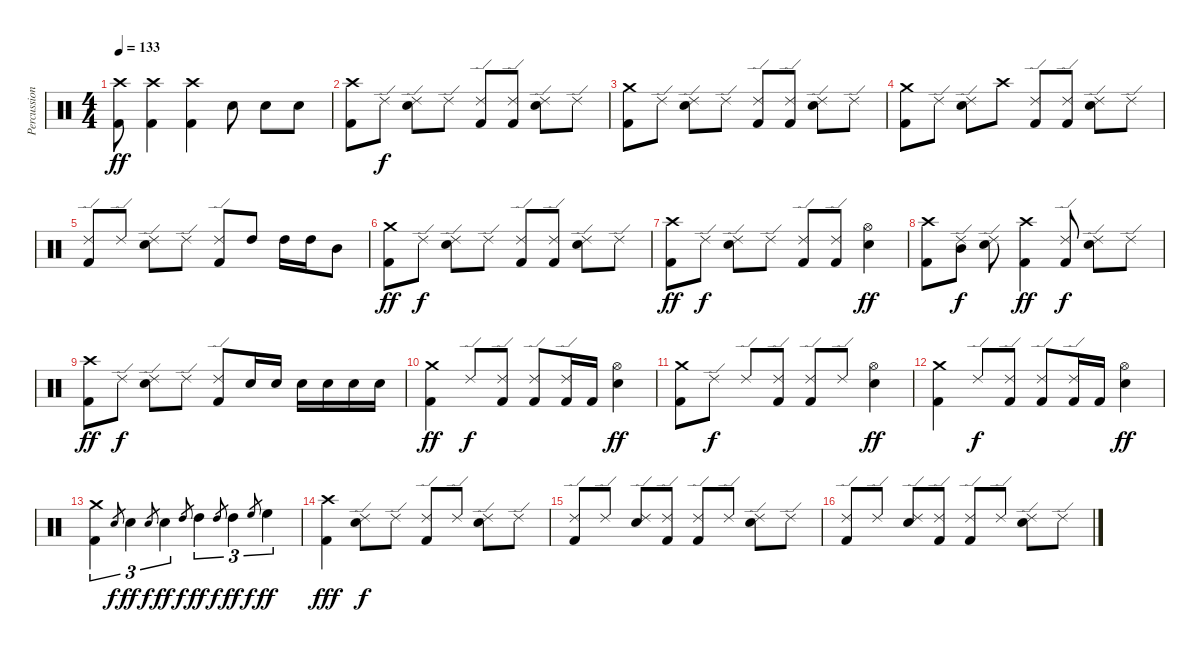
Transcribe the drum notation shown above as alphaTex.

\track ("Percussion" "Percussion") {instrument percussion}
\staff {score}
\articulation defaults
\ts (4 4)
\tempo 133
\clef neutral
\ks c
("Crash high (hit)" "Kick (hit) 2").8{dy ff} ("Crash high (hit)" "Kick (hit) 2").4 ("Crash high (hit)" "Kick (hit) 2").4 "Snare (hit) 2".8 "Snare (hit) 2".8 "Snare (hit) 2".8 |
("Crash high (hit)" "Kick (hit) 2").8 "Ride (edge) 2".8{dy f} ("Ride (edge) 2" "Snare (hit) 2").8 "Ride (edge) 2".8 ("Ride (edge) 2" "Kick (hit) 2").8 ("Ride (edge) 2" "Kick (hit) 2").8 ("Ride (edge) 2" "Snare (hit) 2").8 "Ride (edge) 2".8 |
("Crash medium (hit)" "Kick (hit) 2").8 "Ride (edge) 2".8 ("Ride (edge) 2" "Snare (hit) 2").8 "Ride (edge) 2".8 ("Ride (edge) 2" "Kick (hit) 2").8 ("Ride (edge) 2" "Kick (hit) 2").8 ("Ride (edge) 2" "Snare (hit) 2").8 "Ride (edge) 2".8 |
("Crash medium (hit)" "Kick (hit) 2").8 "Ride (edge) 2".8 ("Ride (edge) 2" "Snare (hit) 2").8 "Crash high (hit)".8 ("Ride (edge) 2" "Kick (hit) 2").8 ("Ride (edge) 2" "Kick (hit) 2").8 ("Ride (edge) 2" "Snare (hit) 2").8 "Ride (edge) 2".8 |
("Ride (edge) 2" "Kick (hit) 2").8 "Ride (edge) 2".8 ("Ride (edge) 2" "Snare (hit) 2").8 "Ride (edge) 2".8 ("Ride (edge) 2" "Kick (hit) 2").8 "High Tom (hit)".8 "High Tom (hit)".16 "High Tom (hit)".16 "Mid Tom (hit)".8 |
("Crash medium (hit)" "Kick (hit) 2").8{dy ff} "Ride (edge) 2".8{dy f} ("Ride (edge) 2" "Snare (hit) 2").8 "Ride (edge) 2".8 ("Ride (edge) 2" "Kick (hit) 2").8 ("Ride (edge) 2" "Kick (hit) 2").8 ("Ride (edge) 2" "Snare (hit) 2").8 "Ride (edge) 2".8 |
("Crash high (hit)" "Kick (hit) 2").8{dy ff} "Ride (edge) 2".8{dy f} ("Ride (edge) 2" "Snare (hit) 2").8 "Ride (edge) 2".8 ("Ride (edge) 2" "Kick (hit) 2").8 ("Ride (edge) 2" "Kick (hit) 2").8 ("Hi-Hat (open)" "Electric Snare (hit)").4{dy ff} |
("Crash high (hit)" "Kick (hit) 2").8 ("Ride (edge) 2" "Mid Tom (hit)").8{dy f} ("Ride (edge) 2" "Snare (hit) 2").8 ("Crash high (hit)" "Kick (hit) 2").4{dy ff} ("Ride (edge) 2" "Kick (hit) 2").8{dy f} ("Ride (edge) 2" "Snare (hit) 2").8 "Ride (edge) 2".8 |
("Crash high (hit)" "Kick (hit) 2").8{dy ff} "Ride (edge) 2".8{dy f} ("Ride (edge) 2" "Snare (hit) 2").8 "Ride (edge) 2".8 ("Ride (edge) 2" "Kick (hit) 2").8 "Electric Snare (hit)".16 "Electric Snare (hit)".16 "Electric Snare (hit)".16 "Electric Snare (hit)".16 "Electric Snare (hit)".16 "Electric Snare (hit)".16 |
("Crash medium (hit)" "Kick (hit) 2").4{dy ff} "Ride (edge) 2".8{dy f} ("Ride (edge) 2" "Kick (hit) 2").8 ("Ride (edge) 2" "Kick (hit) 2").8 ("Ride (edge) 2" "Kick (hit) 2").16 "Kick (hit) 2".16 ("Hi-Hat (open)" "Snare (hit) 2").4{dy ff} |
("Crash medium (hit)" "Kick (hit) 2").8 "Ride (edge) 2".8{dy f} "Ride (edge) 2".8 ("Ride (edge) 2" "Kick (hit) 2").8 ("Ride (edge) 2" "Kick (hit) 2").8 "Ride (edge) 2".8 ("Hi-Hat (open)" "Snare (hit) 2").4{dy ff} |
("Crash medium (hit)" "Kick (hit) 2").4 "Ride (edge) 2".8{dy f} ("Ride (edge) 2" "Kick (hit) 2").8 ("Ride (edge) 2" "Kick (hit) 2").8 ("Ride (edge) 2" "Kick (hit) 2").16 "Kick (hit) 2".16 ("Hi-Hat (open)" "Snare (hit) 2").4{dy ff} |
("Crash medium (hit)" "Kick (hit) 2").4{tu (3 2)} "Snare (hit) 2".8{gr dy f} "Snare (hit) 2".4{tu (3 2) dy ff} "Snare (hit) 2".8{gr dy f} "Snare (hit) 2".4{tu (3 2) dy ff} "High Tom (hit)".8{gr dy f} "High Tom (hit)".4{tu (3 2) dy ff} "High Tom (hit)".8{gr dy f} "High Tom (hit)".4{tu (3 2) dy ff} "High Floor Tom (hit)".8{gr dy f} "High Floor Tom (hit)".4{tu (3 2) dy ff} |
("Crash high (hit)" "Kick (hit) 2").4{dy fff} ("Ride (edge) 2" "Snare (hit) 2").8{dy f} "Ride (edge) 2".8 ("Ride (edge) 2" "Kick (hit) 2").8 "Ride (edge) 2".8 ("Ride (edge) 2" "Snare (hit) 2").8 "Ride (edge) 2".8 |
("Ride (edge) 2" "Kick (hit) 2").8 "Ride (edge) 2".8 ("Ride (edge) 2" "Snare (hit) 2").8 ("Ride (edge) 2" "Kick (hit) 2").8 ("Ride (edge) 2" "Kick (hit) 2").8 "Ride (edge) 2".8 ("Ride (edge) 2" "Snare (hit) 2").8 "Ride (edge) 2".8 |
("Ride (edge) 2" "Kick (hit) 2").8 "Ride (edge) 2".8 ("Ride (edge) 2" "Snare (hit) 2").8 ("Ride (edge) 2" "Kick (hit) 2").8 ("Ride (edge) 2" "Kick (hit) 2").8 "Ride (edge) 2".8 ("Ride (edge) 2" "Snare (hit) 2").8 "Ride (edge) 2".8
